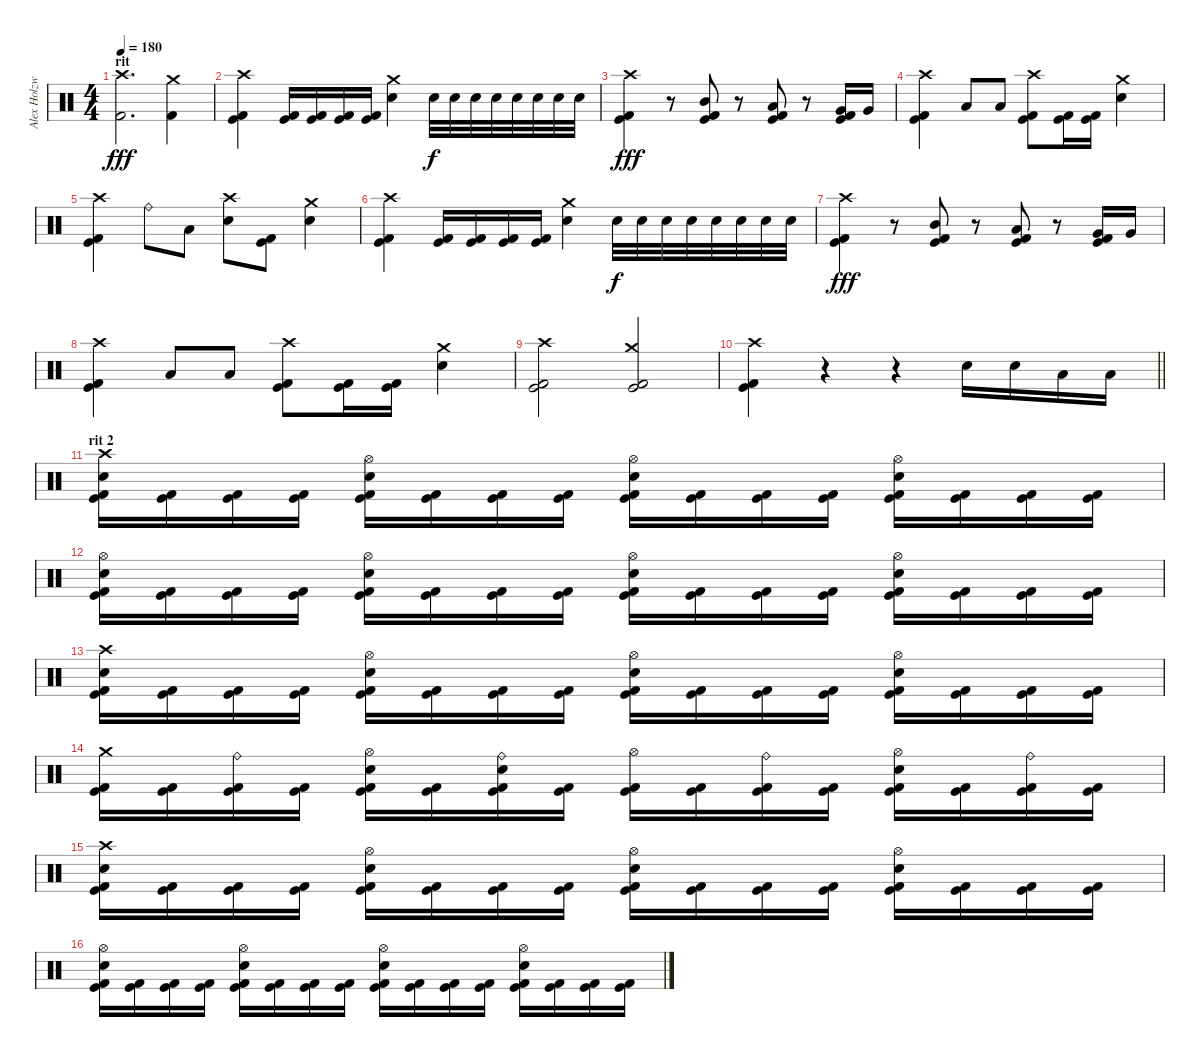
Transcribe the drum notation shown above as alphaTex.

\track ("Alex Holzwarth" "Alex Holzw") {instrument percussion}
\staff {score}
\articulation defaults
\ts (4 4)
\section ("" "rit")
\tempo 180
\clef neutral
\ks c
("Crash high (hit)" "Kick (hit) 2").2{d dy fff} ("Crash medium (hit)" "Kick (hit) 2").4 |
("Crash high (hit)" "Kick (hit)" "Kick (hit) 2").4 ("Kick (hit)" "Kick (hit) 2").16 ("Kick (hit)" "Kick (hit) 2").16 ("Kick (hit)" "Kick (hit) 2").16 ("Kick (hit)" "Kick (hit) 2").16 ("Crash medium (hit)" "Snare (hit) 2").4 "Snare (hit) 2".32{dy f} "Snare (hit) 2".32 "Snare (hit) 2".32 "Snare (hit) 2".32 "Snare (hit) 2".32 "Snare (hit) 2".32 "Snare (hit) 2".32 "Snare (hit) 2".32 |
("Crash high (hit)" "Kick (hit)" "Kick (hit) 2").4{dy fff} r.8 ("Mid Tom (hit)" "Kick (hit)" "Kick (hit) 2").8 r.8 ("Low Tom (hit)" "Kick (hit)" "Kick (hit) 2").8 r.8 ("Very Low Tom (hit)" "Kick (hit)" "Kick (hit) 2").16 "Very Low Tom (hit)".16 |
("Crash high (hit)" "Kick (hit)" "Kick (hit) 2").4 "Low Floor Tom (hit)".8 "Low Tom (hit)".8 ("Crash high (hit)" "Kick (hit)" "Kick (hit) 2").8 ("Kick (hit)" "Kick (hit) 2").16 ("Kick (hit)" "Kick (hit) 2").16 ("Crash medium (hit)" "Snare (hit) 2").4 |
("Crash high (hit)" "Kick (hit)" "Kick (hit) 2").4 "Ride (bell)".8 "Low Tom (hit)".8 ("Crash high (hit)" "Snare (hit) 2").8 ("Kick (hit)" "Kick (hit) 2").8 ("Crash medium (hit)" "Snare (hit) 2").4 |
("Crash high (hit)" "Kick (hit)" "Kick (hit) 2").4 ("Kick (hit)" "Kick (hit) 2").16 ("Kick (hit)" "Kick (hit) 2").16 ("Kick (hit)" "Kick (hit) 2").16 ("Kick (hit)" "Kick (hit) 2").16 ("Crash medium (hit)" "Snare (hit) 2").4 "Snare (hit) 2".32{dy f} "Snare (hit) 2".32 "Snare (hit) 2".32 "Snare (hit) 2".32 "Snare (hit) 2".32 "Snare (hit) 2".32 "Snare (hit) 2".32 "Snare (hit) 2".32 |
("Crash high (hit)" "Kick (hit)" "Kick (hit) 2").4{dy fff} r.8 ("Mid Tom (hit)" "Kick (hit)" "Kick (hit) 2").8 r.8 ("Low Tom (hit)" "Kick (hit)" "Kick (hit) 2").8 r.8 ("Very Low Tom (hit)" "Kick (hit)" "Kick (hit) 2").16 "Very Low Tom (hit)".16 |
("Crash high (hit)" "Kick (hit)" "Kick (hit) 2").4 "Low Floor Tom (hit)".8 "Low Tom (hit)".8 ("Crash high (hit)" "Kick (hit)" "Kick (hit) 2").8 ("Kick (hit)" "Kick (hit) 2").16 ("Kick (hit)" "Kick (hit) 2").16 ("Crash medium (hit)" "Snare (hit) 2").4 |
("Crash high (hit)" "Kick (hit)" "Kick (hit) 2").2 ("Crash medium (hit)" "Kick (hit)" "Kick (hit) 2").2 |
\barLineRight lightlight
("Crash high (hit)" "Kick (hit)" "Kick (hit) 2").4 r.4 r.4 "Snare (hit) 2".16 "Snare (hit) 2".16 "Low Tom (hit)".16 "Low Tom (hit)".16 |
\section ("" "rit 2")
("Crash high (hit)" "Snare (hit) 2" "Kick (hit)" "Kick (hit) 2").16 ("Kick (hit)" "Kick (hit) 2").16 ("Kick (hit)" "Kick (hit) 2").16 ("Kick (hit)" "Kick (hit) 2").16 ("Hi-Hat (open)" "Snare (hit) 2" "Kick (hit)" "Kick (hit) 2").16 ("Kick (hit)" "Kick (hit) 2").16 ("Kick (hit)" "Kick (hit) 2").16 ("Kick (hit)" "Kick (hit) 2").16 ("Hi-Hat (open)" "Snare (hit) 2" "Kick (hit)" "Kick (hit) 2").16 ("Kick (hit)" "Kick (hit) 2").16 ("Kick (hit)" "Kick (hit) 2").16 ("Kick (hit)" "Kick (hit) 2").16 ("Hi-Hat (open)" "Snare (hit) 2" "Kick (hit)" "Kick (hit) 2").16 ("Kick (hit)" "Kick (hit) 2").16 ("Kick (hit)" "Kick (hit) 2").16 ("Kick (hit)" "Kick (hit) 2").16 |
("Hi-Hat (open)" "Snare (hit) 2" "Kick (hit)" "Kick (hit) 2").16 ("Kick (hit)" "Kick (hit) 2").16 ("Kick (hit)" "Kick (hit) 2").16 ("Kick (hit)" "Kick (hit) 2").16 ("Hi-Hat (open)" "Snare (hit) 2" "Kick (hit)" "Kick (hit) 2").16 ("Kick (hit)" "Kick (hit) 2").16 ("Kick (hit)" "Kick (hit) 2").16 ("Kick (hit)" "Kick (hit) 2").16 ("Hi-Hat (open)" "Snare (hit) 2" "Kick (hit)" "Kick (hit) 2").16 ("Kick (hit)" "Kick (hit) 2").16 ("Kick (hit)" "Kick (hit) 2").16 ("Kick (hit)" "Kick (hit) 2").16 ("Hi-Hat (open)" "Snare (hit) 2" "Kick (hit)" "Kick (hit) 2").16 ("Kick (hit)" "Kick (hit) 2").16 ("Kick (hit)" "Kick (hit) 2").16 ("Kick (hit)" "Kick (hit) 2").16 |
("Crash high (hit)" "Snare (hit) 2" "Kick (hit)" "Kick (hit) 2").16 ("Kick (hit)" "Kick (hit) 2").16 ("Kick (hit)" "Kick (hit) 2").16 ("Kick (hit)" "Kick (hit) 2").16 ("Hi-Hat (open)" "Snare (hit) 2" "Kick (hit)" "Kick (hit) 2").16 ("Kick (hit)" "Kick (hit) 2").16 ("Kick (hit)" "Kick (hit) 2").16 ("Kick (hit)" "Kick (hit) 2").16 ("Hi-Hat (open)" "Snare (hit) 2" "Kick (hit)" "Kick (hit) 2").16 ("Kick (hit)" "Kick (hit) 2").16 ("Kick (hit)" "Kick (hit) 2").16 ("Kick (hit)" "Kick (hit) 2").16 ("Hi-Hat (open)" "Snare (hit) 2" "Kick (hit)" "Kick (hit) 2").16 ("Kick (hit)" "Kick (hit) 2").16 ("Kick (hit)" "Kick (hit) 2").16 ("Kick (hit)" "Kick (hit) 2").16 |
("Crash medium (hit)" "Kick (hit)" "Kick (hit) 2").16 ("Kick (hit)" "Kick (hit) 2").16 ("Ride (bell)" "Kick (hit)" "Kick (hit) 2").16 ("Kick (hit)" "Kick (hit) 2").16 ("Hi-Hat (open)" "Snare (hit) 2" "Kick (hit)" "Kick (hit) 2").16 ("Kick (hit)" "Kick (hit) 2").16 ("Ride (bell)" "Snare (hit) 2" "Kick (hit)" "Kick (hit) 2").16 ("Kick (hit)" "Kick (hit) 2").16 ("Hi-Hat (open)" "Kick (hit)" "Kick (hit) 2").16 ("Kick (hit)" "Kick (hit) 2").16 ("Ride (bell)" "Kick (hit)" "Kick (hit) 2").16 ("Kick (hit)" "Kick (hit) 2").16 ("Hi-Hat (open)" "Snare (hit) 2" "Kick (hit)" "Kick (hit) 2").16 ("Kick (hit)" "Kick (hit) 2").16 ("Ride (bell)" "Kick (hit)" "Kick (hit) 2").16 ("Kick (hit)" "Kick (hit) 2").16 |
("Crash high (hit)" "Snare (hit) 2" "Kick (hit)" "Kick (hit) 2").16 ("Kick (hit)" "Kick (hit) 2").16 ("Kick (hit)" "Kick (hit) 2").16 ("Kick (hit)" "Kick (hit) 2").16 ("Hi-Hat (open)" "Snare (hit) 2" "Kick (hit)" "Kick (hit) 2").16 ("Kick (hit)" "Kick (hit) 2").16 ("Kick (hit)" "Kick (hit) 2").16 ("Kick (hit)" "Kick (hit) 2").16 ("Hi-Hat (open)" "Snare (hit) 2" "Kick (hit)" "Kick (hit) 2").16 ("Kick (hit)" "Kick (hit) 2").16 ("Kick (hit)" "Kick (hit) 2").16 ("Kick (hit)" "Kick (hit) 2").16 ("Hi-Hat (open)" "Snare (hit) 2" "Kick (hit)" "Kick (hit) 2").16 ("Kick (hit)" "Kick (hit) 2").16 ("Kick (hit)" "Kick (hit) 2").16 ("Kick (hit)" "Kick (hit) 2").16 |
("Hi-Hat (open)" "Snare (hit) 2" "Kick (hit)" "Kick (hit) 2").16 ("Kick (hit)" "Kick (hit) 2").16 ("Kick (hit)" "Kick (hit) 2").16 ("Kick (hit)" "Kick (hit) 2").16 ("Hi-Hat (open)" "Snare (hit) 2" "Kick (hit)" "Kick (hit) 2").16 ("Kick (hit)" "Kick (hit) 2").16 ("Kick (hit)" "Kick (hit) 2").16 ("Kick (hit)" "Kick (hit) 2").16 ("Hi-Hat (open)" "Snare (hit) 2" "Kick (hit)" "Kick (hit) 2").16 ("Kick (hit)" "Kick (hit) 2").16 ("Kick (hit)" "Kick (hit) 2").16 ("Kick (hit)" "Kick (hit) 2").16 ("Hi-Hat (open)" "Snare (hit) 2" "Kick (hit)" "Kick (hit) 2").16 ("Kick (hit)" "Kick (hit) 2").16 ("Kick (hit)" "Kick (hit) 2").16 ("Kick (hit)" "Kick (hit) 2").16
